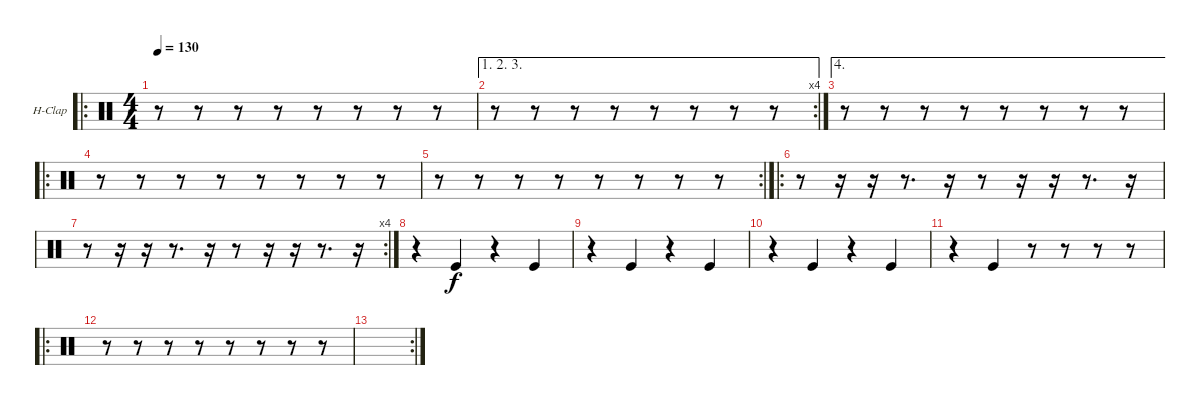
\bracketExtendMode groupsimilarinstruments
\firstSystemTrackNameOrientation horizontal
\otherSystemsTrackNameOrientation horizontal
\track ("Hand Clap" "H-Clap") {instrument percussion}
\staff {score}
\articulation defaults
\ro
\ts (4 4)
\tempo 130
\clef neutral
\ks c
r.8{dy f} r.8 r.8 r.8 r.8 r.8 r.8 r.8 |
\ae (1 2 3)
\rc 4
r.8 r.8 r.8 r.8 r.8 r.8 r.8 r.8 |
\ae 4
r.8 r.8 r.8 r.8 r.8 r.8 r.8 r.8 |
\ro
r.8 r.8 r.8 r.8 r.8 r.8 r.8 r.8 |
\rc 2
r.8 r.8 r.8 r.8 r.8 r.8 r.8 r.8 |
\ro
r.8 r.16 r.16 r.8{d} r.16 r.8 r.16 r.16 r.8{d} r.16 |
\rc 4
r.8 r.16 r.16 r.8{d} r.16 r.8 r.16 r.16 r.8{d} r.16 |
r.4 "Kick (hit)".4 r.4 "Kick (hit)".4 |
r.4 "Kick (hit)".4 r.4 "Kick (hit)".4 |
r.4 "Kick (hit)".4 r.4 "Kick (hit)".4 |
r.4 "Kick (hit)".4 r.8 r.8 r.8 r.8 |
\ro
r.8 r.8 r.8 r.8 r.8 r.8 r.8 r.8 |
\rc 2
